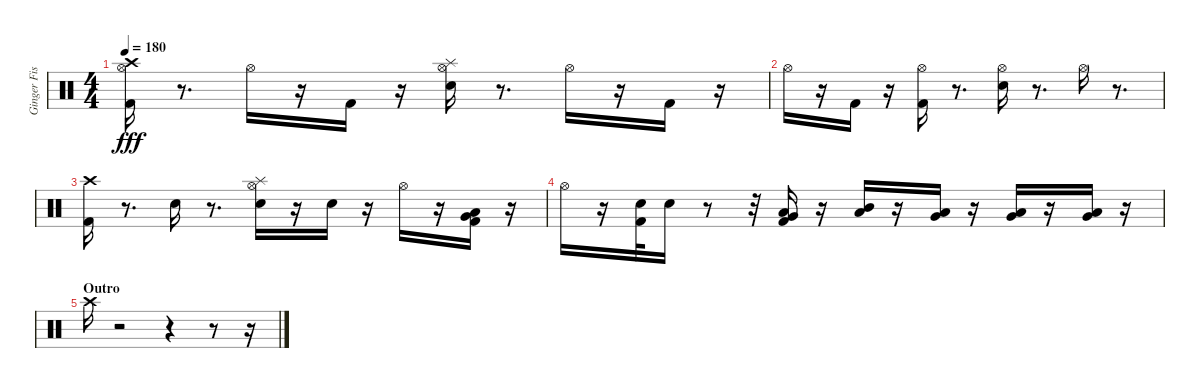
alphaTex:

\track ("Ginger Fish" "Ginger Fis") {instrument percussion}
\staff {score}
\articulation defaults
\ts (4 4)
\tempo 180
\clef neutral
\ks c
("Crash high (hit)" "Kick (hit) 2" "Hi-Hat (open)").16{dy fff} r.8{d} "Hi-Hat (open)".16 r.16 "Kick (hit) 2".16 r.16 ("Splash (hit)" "Electric Snare (hit)" "Hi-Hat (open)").16 r.8{d} "Hi-Hat (open)".16 r.16 "Kick (hit) 2".16 r.16 |
"Hi-Hat (open)".16 r.16 "Kick (hit) 2".16 r.16 ("Hi-Hat (open)" "Kick (hit) 2").16 r.8{d} ("Hi-Hat (open)" "Electric Snare (hit)").16 r.8{d} "Hi-Hat (open)".16 r.8{d} |
("Crash high (hit)" "Kick (hit) 2").16 r.8{d} "Electric Snare (hit)".16 r.8{d} ("Splash (hit)" "Hi-Hat (open)" "Electric Snare (hit)").16 r.16 "Electric Snare (hit)".16 r.16 "Hi-Hat (open)".16 r.16 ("Very Low Tom (hit)" "Low Floor Tom (hit)" "Kick (hit) 2").16 r.16 |
"Hi-Hat (open)".16 r.16 ("Electric Snare (hit)" "Kick (hit) 2").32 "Electric Snare (hit)".16 r.8 r.32 ("Low Tom (hit)" "Very Low Tom (hit)" "Kick (hit) 2").16 r.16 ("Low Tom (hit)" "Mid Tom (hit)").16 r.16 ("Very Low Tom (hit)" "Low Tom (hit)").16 r.16 ("Low Tom (hit)" "Very Low Tom (hit)").16 r.16 ("Very Low Tom (hit)" "Low Floor Tom (hit)").16 r.16 |
\section ("" "Outro")
"Crash high (hit)".16 r.2 r.4 r.8 r.16
